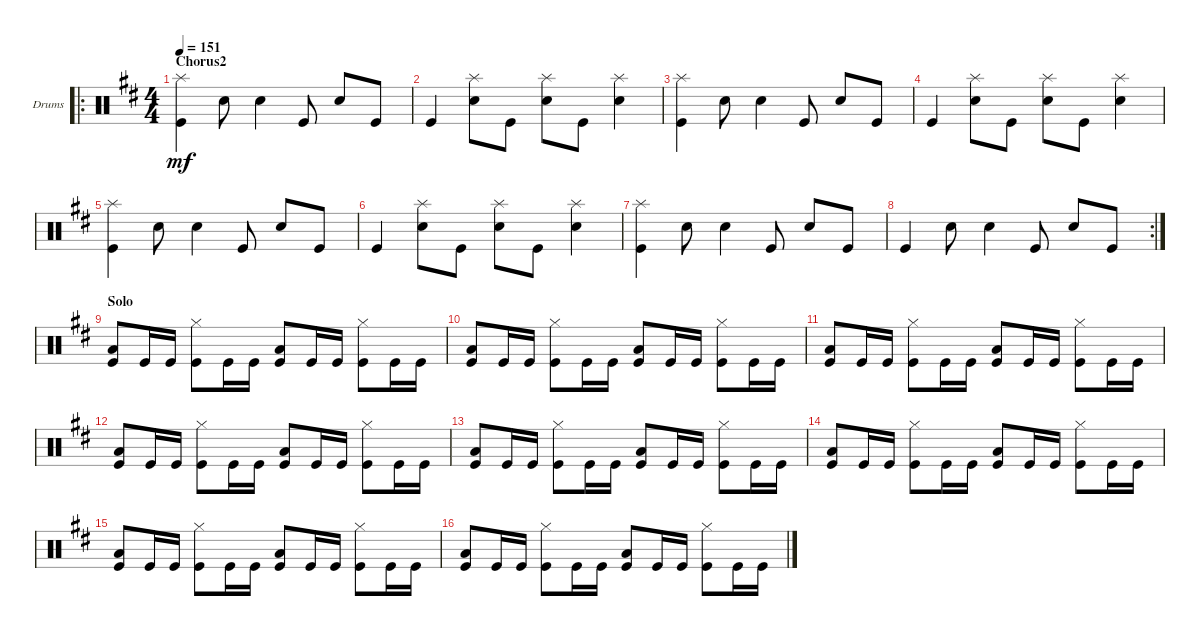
\defaultSystemsLayout 4
\bracketExtendMode groupsimilarinstruments
\firstSystemTrackNameOrientation horizontal
\otherSystemsTrackNameOrientation horizontal
\track ("Drumkit" "Drums") {instrument percussion}
\staff {score}
\articulation defaults
\ro
\ts (4 4)
\section ("" "Chorus2")
\tempo 151
\clef neutral
\ks d
("Kick (hit)" "Splash (hit)").4{dy mf} "Snare (hit) 2".8 "Snare (hit) 2".4 "Kick (hit)".8 "Snare (hit) 2".8 "Kick (hit)".8 |
"Kick (hit)".4 ("Snare (hit) 2" "Splash (hit)").8 "Kick (hit)".8 ("Snare (hit) 2" "Splash (hit)").8 "Kick (hit)".8 ("Snare (hit) 2" "Splash (hit)").4 |
("Kick (hit)" "Splash (hit)").4 "Snare (hit) 2".8 "Snare (hit) 2".4 "Kick (hit)".8 "Snare (hit) 2".8 "Kick (hit)".8 |
"Kick (hit)".4 ("Snare (hit) 2" "Splash (hit)").8 "Kick (hit)".8 ("Snare (hit) 2" "Splash (hit)").8 "Kick (hit)".8 ("Snare (hit) 2" "Splash (hit)").4 |
("Kick (hit)" "Splash (hit)").4 "Snare (hit) 2".8 "Snare (hit) 2".4 "Kick (hit)".8 "Snare (hit) 2".8 "Kick (hit)".8 |
"Kick (hit)".4 ("Snare (hit) 2" "Splash (hit)").8 "Kick (hit)".8 ("Snare (hit) 2" "Splash (hit)").8 "Kick (hit)".8 ("Snare (hit) 2" "Splash (hit)").4 |
("Kick (hit)" "Splash (hit)").4 "Snare (hit) 2".8 "Snare (hit) 2".4 "Kick (hit)".8 "Snare (hit) 2".8 "Kick (hit)".8 |
\rc 2 "Kick (hit)".4 "Snare (hit) 2".8 "Snare (hit) 2".4 "Kick (hit)".8 "Snare (hit) 2".8 "Kick (hit)".8
|
\section ("" "Solo")
("Kick (hit)" "Low Tom (hit)").8 "Kick (hit)".16 "Kick (hit)".16 ("Kick (hit)" "Hi-Hat (closed)").8 "Kick (hit)".16 "Kick (hit)".16 ("Kick (hit)" "Low Tom (hit)").8 "Kick (hit)".16 "Kick (hit)".16 ("Kick (hit)" "Hi-Hat (closed)").8 "Kick (hit)".16 "Kick (hit)".16 |
("Kick (hit)" "Low Tom (hit)").8 "Kick (hit)".16 "Kick (hit)".16 ("Kick (hit)" "Hi-Hat (closed)").8 "Kick (hit)".16 "Kick (hit)".16 ("Kick (hit)" "Low Tom (hit)").8 "Kick (hit)".16 "Kick (hit)".16 ("Kick (hit)" "Hi-Hat (closed)").8 "Kick (hit)".16 "Kick (hit)".16 |
("Kick (hit)" "Low Tom (hit)").8 "Kick (hit)".16 "Kick (hit)".16 ("Kick (hit)" "Hi-Hat (closed)").8 "Kick (hit)".16 "Kick (hit)".16 ("Kick (hit)" "Low Tom (hit)").8 "Kick (hit)".16 "Kick (hit)".16 ("Kick (hit)" "Hi-Hat (closed)").8 "Kick (hit)".16 "Kick (hit)".16 |
("Kick (hit)" "Low Tom (hit)").8 "Kick (hit)".16 "Kick (hit)".16 ("Kick (hit)" "Hi-Hat (closed)").8 "Kick (hit)".16 "Kick (hit)".16 ("Kick (hit)" "Low Tom (hit)").8 "Kick (hit)".16 "Kick (hit)".16 ("Kick (hit)" "Hi-Hat (closed)").8 "Kick (hit)".16 "Kick (hit)".16 |
("Kick (hit)" "Low Tom (hit)").8 "Kick (hit)".16 "Kick (hit)".16 ("Kick (hit)" "Hi-Hat (closed)").8 "Kick (hit)".16 "Kick (hit)".16 ("Kick (hit)" "Low Tom (hit)").8 "Kick (hit)".16 "Kick (hit)".16 ("Kick (hit)" "Hi-Hat (closed)").8 "Kick (hit)".16 "Kick (hit)".16 |
("Kick (hit)" "Low Tom (hit)").8 "Kick (hit)".16 "Kick (hit)".16 ("Kick (hit)" "Hi-Hat (closed)").8 "Kick (hit)".16 "Kick (hit)".16 ("Kick (hit)" "Low Tom (hit)").8 "Kick (hit)".16 "Kick (hit)".16 ("Kick (hit)" "Hi-Hat (closed)").8 "Kick (hit)".16 "Kick (hit)".16 |
("Kick (hit)" "Low Tom (hit)").8 "Kick (hit)".16 "Kick (hit)".16 ("Kick (hit)" "Hi-Hat (closed)").8 "Kick (hit)".16 "Kick (hit)".16 ("Kick (hit)" "Low Tom (hit)").8 "Kick (hit)".16 "Kick (hit)".16 ("Kick (hit)" "Hi-Hat (closed)").8 "Kick (hit)".16 "Kick (hit)".16 |
("Kick (hit)" "Low Tom (hit)").8 "Kick (hit)".16 "Kick (hit)".16 ("Kick (hit)" "Hi-Hat (closed)").8 "Kick (hit)".16 "Kick (hit)".16 ("Kick (hit)" "Low Tom (hit)").8 "Kick (hit)".16 "Kick (hit)".16 ("Kick (hit)" "Hi-Hat (closed)").8 "Kick (hit)".16 "Kick (hit)".16
